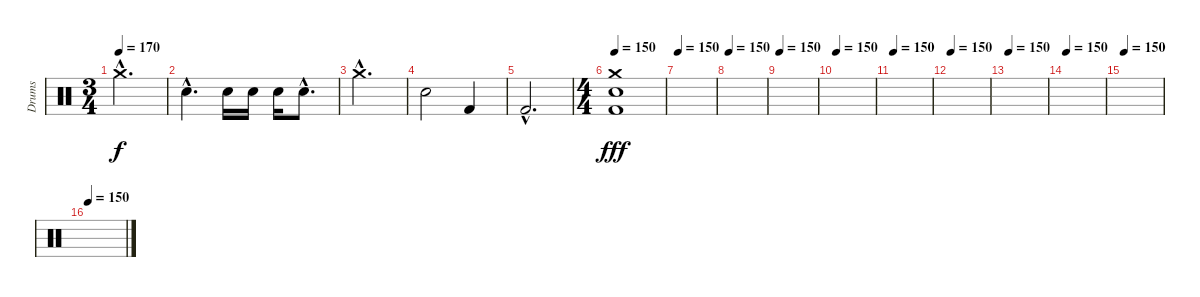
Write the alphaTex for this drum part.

\track ("Drums" "Drums") {instrument percussion}
\staff {score}
\articulation defaults
\ts (3 4)
\tempo 170
\clef neutral
\ks c "Crash medium (hit)"{hac}.2{d dy f}
|
"Electric Snare (hit)"{hac}.4{d} "Electric Snare (hit)".16 "Electric Snare (hit)".16 "Electric Snare (hit)".16 "Electric Snare (hit)"{hac}.8{d} |
"Crash medium (hit)"{hac}.2{d} |
"Electric Snare (hit)".2 "Kick (hit) 2".4 |
"Kick (hit) 2"{hac}.2{d} |
\ts (4 4)
\tempo 150
("Crash medium (hit)" "Electric Snare (hit)" "Kick (hit) 2").1{dy fff} |
\tempo 150
|
\tempo 150
|
\tempo 150
|
\tempo 150
|
\tempo 150
|
\tempo 150
|
\tempo 150
|
\tempo 150
|
\tempo 150
|
\tempo 150
